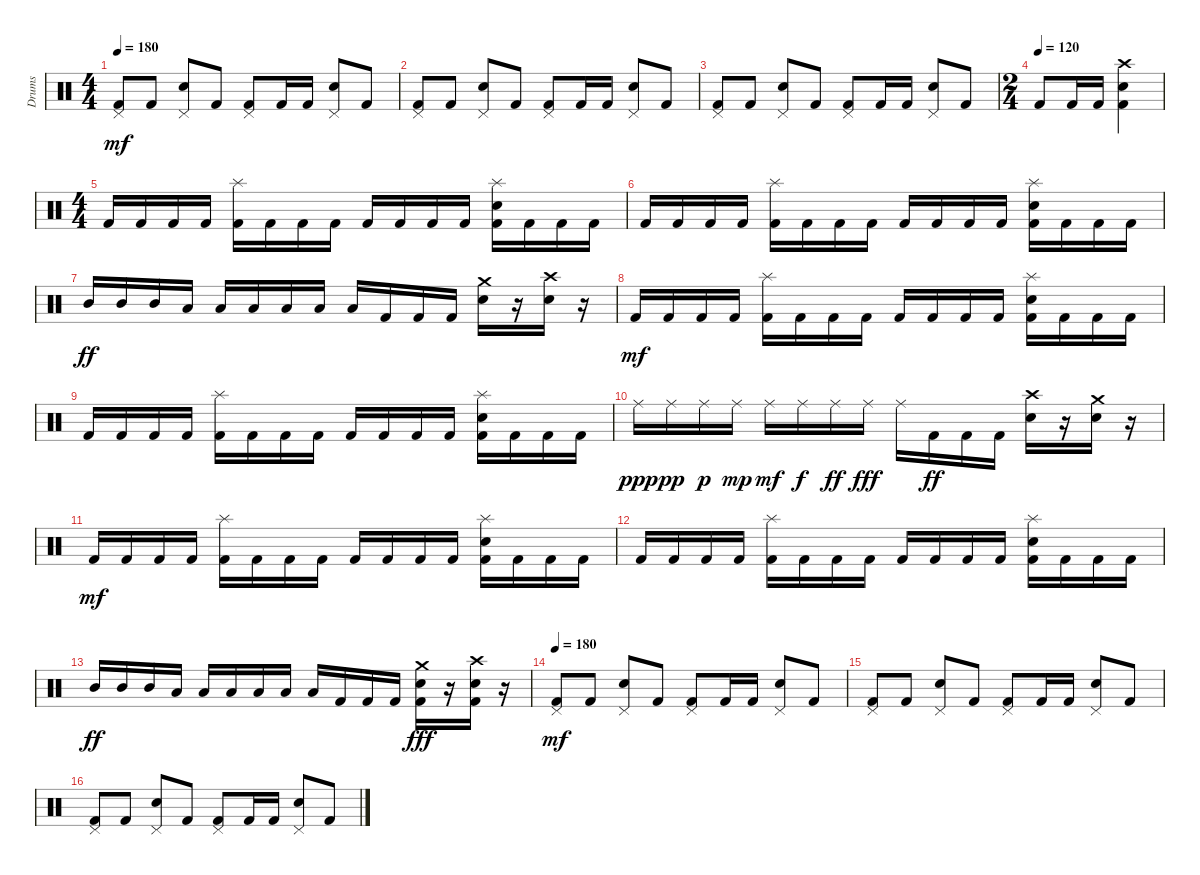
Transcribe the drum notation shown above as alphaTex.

\track ("Drums" "Drums") {instrument percussion}
\staff {score}
\articulation defaults
\ts (4 4)
\tempo 180
\clef neutral
\ks c
("Pedal Hi-Hat (hit)" "Kick (hit) 2").8{dy mf} "Kick (hit) 2".8 ("Pedal Hi-Hat (hit)" "Snare (hit) 2").8 "Kick (hit) 2".8 ("Pedal Hi-Hat (hit)" "Kick (hit) 2").8 "Kick (hit) 2".16 "Kick (hit) 2".16 ("Pedal Hi-Hat (hit)" "Snare (hit) 2").8 "Kick (hit) 2".8 |
("Pedal Hi-Hat (hit)" "Kick (hit) 2").8 "Kick (hit) 2".8 ("Pedal Hi-Hat (hit)" "Snare (hit) 2").8 "Kick (hit) 2".8 ("Pedal Hi-Hat (hit)" "Kick (hit) 2").8 "Kick (hit) 2".16 "Kick (hit) 2".16 ("Pedal Hi-Hat (hit)" "Snare (hit) 2").8 "Kick (hit) 2".8 |
("Pedal Hi-Hat (hit)" "Kick (hit) 2").8 "Kick (hit) 2".8 ("Pedal Hi-Hat (hit)" "Snare (hit) 2").8 "Kick (hit) 2".8 ("Pedal Hi-Hat (hit)" "Kick (hit) 2").8 "Kick (hit) 2".16 "Kick (hit) 2".16 ("Pedal Hi-Hat (hit)" "Snare (hit) 2").8 "Kick (hit) 2".8 |
\ts (2 4)
\tempo (120)
"Kick (hit) 2".8 "Kick (hit) 2".16 "Kick (hit) 2".16 ("Crash high (hit)" "Snare (hit) 2" "Kick (hit) 2").4 |
\ts (4 4)
"Kick (hit) 2".16 "Kick (hit) 2".16 "Kick (hit) 2".16 "Kick (hit) 2".16 ("Splash (hit)" "Kick (hit) 2").16 "Kick (hit) 2".16 "Kick (hit) 2".16 "Kick (hit) 2".16 "Kick (hit) 2".16 "Kick (hit) 2".16 "Kick (hit) 2".16 "Kick (hit) 2".16 ("Splash (hit)" "Snare (hit) 2" "Kick (hit) 2").16 "Kick (hit) 2".16 "Kick (hit) 2".16 "Kick (hit) 2".16 |
"Kick (hit) 2".16 "Kick (hit) 2".16 "Kick (hit) 2".16 "Kick (hit) 2".16 ("Splash (hit)" "Kick (hit) 2").16 "Kick (hit) 2".16 "Kick (hit) 2".16 "Kick (hit) 2".16 "Kick (hit) 2".16 "Kick (hit) 2".16 "Kick (hit) 2".16 "Kick (hit) 2".16 ("Splash (hit)" "Snare (hit) 2" "Kick (hit) 2").16 "Kick (hit) 2".16 "Kick (hit) 2".16 "Kick (hit) 2".16 |
"Mid Tom (hit)".16{dy ff} "Mid Tom (hit)".16 "Mid Tom (hit)".16 "Low Tom (hit)".16 "Low Tom (hit)".16 "Low Tom (hit)".16 "Low Floor Tom (hit)".16 "Low Floor Tom (hit)".16 "Low Floor Tom (hit)".16 "Kick (hit) 2".16 "Kick (hit) 2".16 "Kick (hit) 2".16 ("Crash medium (hit)" "Snare (hit) 2").16 r.16 ("Crash high (hit)" "Snare (hit) 2").16 r.16 |
"Kick (hit) 2".16{dy mf} "Kick (hit) 2".16 "Kick (hit) 2".16 "Kick (hit) 2".16 ("Splash (hit)" "Kick (hit) 2").16 "Kick (hit) 2".16 "Kick (hit) 2".16 "Kick (hit) 2".16 "Kick (hit) 2".16 "Kick (hit) 2".16 "Kick (hit) 2".16 "Kick (hit) 2".16 ("Splash (hit)" "Snare (hit) 2" "Kick (hit) 2").16 "Kick (hit) 2".16 "Kick (hit) 2".16 "Kick (hit) 2".16 |
"Kick (hit) 2".16 "Kick (hit) 2".16 "Kick (hit) 2".16 "Kick (hit) 2".16 ("Splash (hit)" "Kick (hit) 2").16 "Kick (hit) 2".16 "Kick (hit) 2".16 "Kick (hit) 2".16 "Kick (hit) 2".16 "Kick (hit) 2".16 "Kick (hit) 2".16 "Kick (hit) 2".16 ("Splash (hit)" "Snare (hit) 2" "Kick (hit) 2").16 "Kick (hit) 2".16 "Kick (hit) 2".16 "Kick (hit) 2".16 |
"Ride (middle)".16{dy ppp} "Ride (middle)".16{dy pp} "Ride (middle)".16{dy p} "Ride (middle)".16{dy mp} "Ride (middle)".16{dy mf} "Ride (middle)".16{dy f} "Ride (middle)".16{dy ff} "Ride (middle)".16{dy fff} "Ride (middle)".16 "Kick (hit) 2".16{dy ff} "Kick (hit) 2".16 "Kick (hit) 2".16 ("Crash high (hit)" "Snare (hit) 2").16 r.16 ("Crash medium (hit)" "Snare (hit) 2").16 r.16 |
"Kick (hit) 2".16{dy mf} "Kick (hit) 2".16 "Kick (hit) 2".16 "Kick (hit) 2".16 ("Splash (hit)" "Kick (hit) 2").16 "Kick (hit) 2".16 "Kick (hit) 2".16 "Kick (hit) 2".16 "Kick (hit) 2".16 "Kick (hit) 2".16 "Kick (hit) 2".16 "Kick (hit) 2".16 ("Splash (hit)" "Snare (hit) 2" "Kick (hit) 2").16 "Kick (hit) 2".16 "Kick (hit) 2".16 "Kick (hit) 2".16 |
"Kick (hit) 2".16 "Kick (hit) 2".16 "Kick (hit) 2".16 "Kick (hit) 2".16 ("Splash (hit)" "Kick (hit) 2").16 "Kick (hit) 2".16 "Kick (hit) 2".16 "Kick (hit) 2".16 "Kick (hit) 2".16 "Kick (hit) 2".16 "Kick (hit) 2".16 "Kick (hit) 2".16 ("Splash (hit)" "Snare (hit) 2" "Kick (hit) 2").16 "Kick (hit) 2".16 "Kick (hit) 2".16 "Kick (hit) 2".16 |
"Mid Tom (hit)".16{dy ff} "Mid Tom (hit)".16 "Mid Tom (hit)".16 "Low Tom (hit)".16 "Low Tom (hit)".16 "Low Tom (hit)".16 "Low Floor Tom (hit)".16 "Low Floor Tom (hit)".16 "Low Floor Tom (hit)".16 "Kick (hit) 2".16 "Kick (hit) 2".16 "Kick (hit) 2".16 ("Crash medium (hit)" "Snare (hit) 2" "Kick (hit) 2").16{dy fff} r.16 ("Crash high (hit)" "Snare (hit) 2" "Kick (hit) 2").16 r.16 |
\tempo 180
("Pedal Hi-Hat (hit)" "Kick (hit) 2").8{dy mf} "Kick (hit) 2".8 ("Pedal Hi-Hat (hit)" "Snare (hit) 2").8 "Kick (hit) 2".8 ("Pedal Hi-Hat (hit)" "Kick (hit) 2").8 "Kick (hit) 2".16 "Kick (hit) 2".16 ("Pedal Hi-Hat (hit)" "Snare (hit) 2").8 "Kick (hit) 2".8 |
("Pedal Hi-Hat (hit)" "Kick (hit) 2").8 "Kick (hit) 2".8 ("Pedal Hi-Hat (hit)" "Snare (hit) 2").8 "Kick (hit) 2".8 ("Pedal Hi-Hat (hit)" "Kick (hit) 2").8 "Kick (hit) 2".16 "Kick (hit) 2".16 ("Pedal Hi-Hat (hit)" "Snare (hit) 2").8 "Kick (hit) 2".8 |
("Pedal Hi-Hat (hit)" "Kick (hit) 2").8 "Kick (hit) 2".8 ("Pedal Hi-Hat (hit)" "Snare (hit) 2").8 "Kick (hit) 2".8 ("Pedal Hi-Hat (hit)" "Kick (hit) 2").8 "Kick (hit) 2".16 "Kick (hit) 2".16 ("Pedal Hi-Hat (hit)" "Snare (hit) 2").8 "Kick (hit) 2".8
